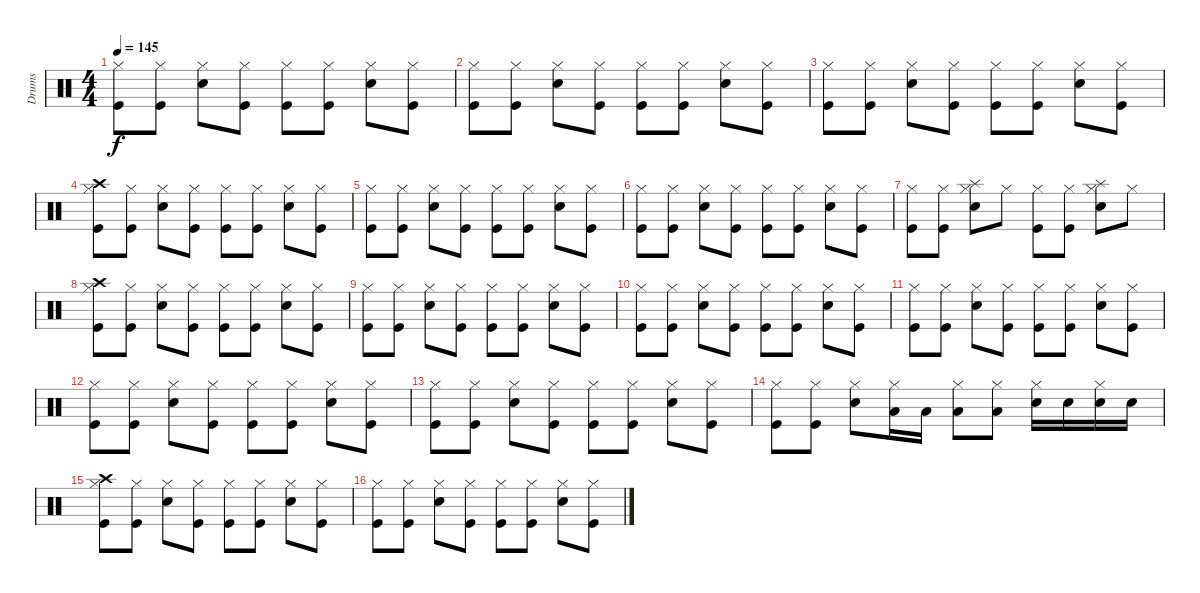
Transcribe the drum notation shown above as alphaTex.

\track ("Drums" "Drums") {instrument percussion}
\staff {score}
\articulation defaults
\ts (4 4)
\tempo 145
\clef neutral
\ks c
("Kick (hit)" "Hi-Hat (closed)").8{dy f} ("Kick (hit)" "Hi-Hat (closed)").8 ("Hi-Hat (closed)" "Snare (hit) 2").8 ("Kick (hit)" "Hi-Hat (closed)").8 ("Kick (hit)" "Hi-Hat (closed)").8 ("Kick (hit)" "Hi-Hat (closed)").8 ("Hi-Hat (closed)" "Snare (hit) 2").8 ("Kick (hit)" "Hi-Hat (closed)").8 |
("Kick (hit)" "Hi-Hat (closed)").8 ("Kick (hit)" "Hi-Hat (closed)").8 ("Hi-Hat (closed)" "Snare (hit) 2").8 ("Kick (hit)" "Hi-Hat (closed)").8 ("Kick (hit)" "Hi-Hat (closed)").8 ("Kick (hit)" "Hi-Hat (closed)").8 ("Hi-Hat (closed)" "Snare (hit) 2").8 ("Kick (hit)" "Hi-Hat (closed)").8 |
("Kick (hit)" "Hi-Hat (closed)").8 ("Kick (hit)" "Hi-Hat (closed)").8 ("Hi-Hat (closed)" "Snare (hit) 2").8 ("Kick (hit)" "Hi-Hat (closed)").8 ("Kick (hit)" "Hi-Hat (closed)").8 ("Kick (hit)" "Hi-Hat (closed)").8 ("Hi-Hat (closed)" "Snare (hit) 2").8 ("Kick (hit)" "Hi-Hat (closed)").8 |
("Kick (hit)" "Hi-Hat (closed)" "Crash high (hit)").8 ("Kick (hit)" "Hi-Hat (closed)").8 ("Hi-Hat (closed)" "Snare (hit) 2").8 ("Kick (hit)" "Hi-Hat (closed)").8 ("Kick (hit)" "Hi-Hat (closed)").8 ("Kick (hit)" "Hi-Hat (closed)").8 ("Hi-Hat (closed)" "Snare (hit) 2").8 ("Kick (hit)" "Hi-Hat (closed)").8 |
("Kick (hit)" "Hi-Hat (closed)").8 ("Kick (hit)" "Hi-Hat (closed)").8 ("Hi-Hat (closed)" "Snare (hit) 2").8 ("Kick (hit)" "Hi-Hat (closed)").8 ("Kick (hit)" "Hi-Hat (closed)").8 ("Kick (hit)" "Hi-Hat (closed)").8 ("Hi-Hat (closed)" "Snare (hit) 2").8 ("Kick (hit)" "Hi-Hat (closed)").8 |
("Kick (hit)" "Hi-Hat (closed)").8 ("Kick (hit)" "Hi-Hat (closed)").8 ("Hi-Hat (closed)" "Snare (hit) 2").8 ("Kick (hit)" "Hi-Hat (closed)").8 ("Kick (hit)" "Hi-Hat (closed)").8 ("Kick (hit)" "Hi-Hat (closed)").8 ("Hi-Hat (closed)" "Snare (hit) 2").8 ("Kick (hit)" "Hi-Hat (closed)").8 |
("Kick (hit)" "Hi-Hat (closed)").8 ("Kick (hit)" "Hi-Hat (closed)").8 ("Snare (hit) 2" "Hi-Hat (closed)" "Splash (hit)").8 "Hi-Hat (closed)".8 ("Kick (hit)" "Hi-Hat (closed)").8 ("Kick (hit)" "Hi-Hat (closed)").8 ("Snare (hit) 2" "Hi-Hat (closed)" "Splash (hit)").8 "Hi-Hat (closed)".8 |
("Kick (hit)" "Hi-Hat (closed)" "Crash high (hit)").8 ("Kick (hit)" "Hi-Hat (closed)").8 ("Hi-Hat (closed)" "Snare (hit) 2").8 ("Kick (hit)" "Hi-Hat (closed)").8 ("Kick (hit)" "Hi-Hat (closed)").8 ("Kick (hit)" "Hi-Hat (closed)").8 ("Hi-Hat (closed)" "Snare (hit) 2").8 ("Kick (hit)" "Hi-Hat (closed)").8 |
("Kick (hit)" "Hi-Hat (closed)").8 ("Kick (hit)" "Hi-Hat (closed)").8 ("Hi-Hat (closed)" "Snare (hit) 2").8 ("Kick (hit)" "Hi-Hat (closed)").8 ("Kick (hit)" "Hi-Hat (closed)").8 ("Kick (hit)" "Hi-Hat (closed)").8 ("Hi-Hat (closed)" "Snare (hit) 2").8 ("Kick (hit)" "Hi-Hat (closed)").8 |
("Kick (hit)" "Hi-Hat (closed)").8 ("Kick (hit)" "Hi-Hat (closed)").8 ("Hi-Hat (closed)" "Snare (hit) 2").8 ("Kick (hit)" "Hi-Hat (closed)").8 ("Kick (hit)" "Hi-Hat (closed)").8 ("Kick (hit)" "Hi-Hat (closed)").8 ("Hi-Hat (closed)" "Snare (hit) 2").8 ("Kick (hit)" "Hi-Hat (closed)").8 |
("Kick (hit)" "Hi-Hat (closed)").8 ("Kick (hit)" "Hi-Hat (closed)").8 ("Hi-Hat (closed)" "Snare (hit) 2").8 ("Kick (hit)" "Hi-Hat (closed)").8 ("Kick (hit)" "Hi-Hat (closed)").8 ("Kick (hit)" "Hi-Hat (closed)").8 ("Hi-Hat (closed)" "Snare (hit) 2").8 ("Kick (hit)" "Hi-Hat (closed)").8 |
("Kick (hit)" "Hi-Hat (closed)").8 ("Kick (hit)" "Hi-Hat (closed)").8 ("Hi-Hat (closed)" "Snare (hit) 2").8 ("Kick (hit)" "Hi-Hat (closed)").8 ("Kick (hit)" "Hi-Hat (closed)").8 ("Kick (hit)" "Hi-Hat (closed)").8 ("Hi-Hat (closed)" "Snare (hit) 2").8 ("Kick (hit)" "Hi-Hat (closed)").8 |
("Kick (hit)" "Hi-Hat (closed)").8 ("Kick (hit)" "Hi-Hat (closed)").8 ("Hi-Hat (closed)" "Snare (hit) 2").8 ("Kick (hit)" "Hi-Hat (closed)").8 ("Kick (hit)" "Hi-Hat (closed)").8 ("Kick (hit)" "Hi-Hat (closed)").8 ("Hi-Hat (closed)" "Snare (hit) 2").8 ("Kick (hit)" "Hi-Hat (closed)").8 |
("Hi-Hat (closed)" "Kick (hit)").8 ("Hi-Hat (closed)" "Kick (hit)").8 ("Hi-Hat (closed)" "Snare (hit) 2").8 ("Hi-Hat (closed)" "Low Tom (hit)").16 "Low Tom (hit)".16 ("Hi-Hat (closed)" "Low Tom (hit)").8 ("Hi-Hat (closed)" "Low Tom (hit)").8 ("Hi-Hat (closed)" "Snare (hit) 2").16 "Snare (hit) 2".16 ("Hi-Hat (closed)" "Snare (hit) 2").16 "Snare (hit) 2".16 |
("Kick (hit)" "Hi-Hat (closed)" "Crash high (hit)").8 ("Kick (hit)" "Hi-Hat (closed)").8 ("Hi-Hat (closed)" "Snare (hit) 2").8 ("Kick (hit)" "Hi-Hat (closed)").8 ("Kick (hit)" "Hi-Hat (closed)").8 ("Kick (hit)" "Hi-Hat (closed)").8 ("Hi-Hat (closed)" "Snare (hit) 2").8 ("Kick (hit)" "Hi-Hat (closed)").8 |
("Kick (hit)" "Hi-Hat (closed)").8 ("Kick (hit)" "Hi-Hat (closed)").8 ("Hi-Hat (closed)" "Snare (hit) 2").8 ("Kick (hit)" "Hi-Hat (closed)").8 ("Kick (hit)" "Hi-Hat (closed)").8 ("Kick (hit)" "Hi-Hat (closed)").8 ("Hi-Hat (closed)" "Snare (hit) 2").8 ("Kick (hit)" "Hi-Hat (closed)").8
